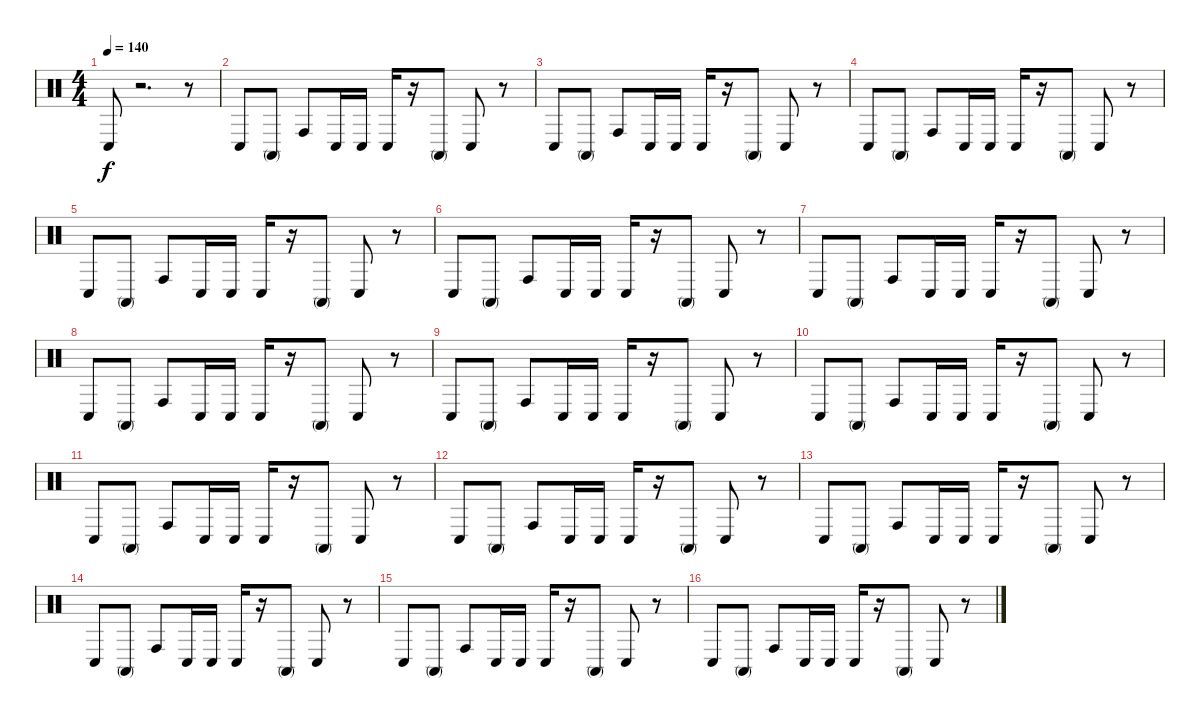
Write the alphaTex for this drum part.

\track "" {instrument percussion}
\staff {score}
\articulation defaults
\ts (4 4)
\tempo 140
\clef neutral
\ks c "Conga low (hit)".8{dy f}
r.2{d} r.8 |
"Conga low (hit)".8 "Conga high (mute)".8 "Conga high (hit)".8 "Conga low (hit)".16 "Conga low (hit)".16 "Conga low (hit)".16 r.16 "Conga high (mute)".8 "Conga low (hit)".8 r.8 |
"Conga low (hit)".8 "Conga high (mute)".8 "Conga high (hit)".8 "Conga low (hit)".16 "Conga low (hit)".16 "Conga low (hit)".16 r.16 "Conga high (mute)".8 "Conga low (hit)".8 r.8 |
"Conga low (hit)".8 "Conga high (mute)".8 "Conga high (hit)".8 "Conga low (hit)".16 "Conga low (hit)".16 "Conga low (hit)".16 r.16 "Conga high (mute)".8 "Conga low (hit)".8 r.8 |
"Conga low (hit)".8 "Conga high (mute)".8 "Conga high (hit)".8 "Conga low (hit)".16 "Conga low (hit)".16 "Conga low (hit)".16 r.16 "Conga high (mute)".8 "Conga low (hit)".8 r.8 |
"Conga low (hit)".8 "Conga high (mute)".8 "Conga high (hit)".8 "Conga low (hit)".16 "Conga low (hit)".16 "Conga low (hit)".16 r.16 "Conga high (mute)".8 "Conga low (hit)".8 r.8 |
"Conga low (hit)".8 "Conga high (mute)".8 "Conga high (hit)".8 "Conga low (hit)".16 "Conga low (hit)".16 "Conga low (hit)".16 r.16 "Conga high (mute)".8 "Conga low (hit)".8 r.8 |
"Conga low (hit)".8 "Conga high (mute)".8 "Conga high (hit)".8 "Conga low (hit)".16 "Conga low (hit)".16 "Conga low (hit)".16 r.16 "Conga high (mute)".8 "Conga low (hit)".8 r.8 |
"Conga low (hit)".8 "Conga high (mute)".8 "Conga high (hit)".8 "Conga low (hit)".16 "Conga low (hit)".16 "Conga low (hit)".16 r.16 "Conga high (mute)".8 "Conga low (hit)".8 r.8 |
"Conga low (hit)".8 "Conga high (mute)".8 "Conga high (hit)".8 "Conga low (hit)".16 "Conga low (hit)".16 "Conga low (hit)".16 r.16 "Conga high (mute)".8 "Conga low (hit)".8 r.8 |
"Conga low (hit)".8 "Conga high (mute)".8 "Conga high (hit)".8 "Conga low (hit)".16 "Conga low (hit)".16 "Conga low (hit)".16 r.16 "Conga high (mute)".8 "Conga low (hit)".8 r.8 |
"Conga low (hit)".8 "Conga high (mute)".8 "Conga high (hit)".8 "Conga low (hit)".16 "Conga low (hit)".16 "Conga low (hit)".16 r.16 "Conga high (mute)".8 "Conga low (hit)".8 r.8 |
"Conga low (hit)".8 "Conga high (mute)".8 "Conga high (hit)".8 "Conga low (hit)".16 "Conga low (hit)".16 "Conga low (hit)".16 r.16 "Conga high (mute)".8 "Conga low (hit)".8 r.8 |
"Conga low (hit)".8 "Conga high (mute)".8 "Conga high (hit)".8 "Conga low (hit)".16 "Conga low (hit)".16 "Conga low (hit)".16 r.16 "Conga high (mute)".8 "Conga low (hit)".8 r.8 |
"Conga low (hit)".8 "Conga high (mute)".8 "Conga high (hit)".8 "Conga low (hit)".16 "Conga low (hit)".16 "Conga low (hit)".16 r.16 "Conga high (mute)".8 "Conga low (hit)".8 r.8 |
"Conga low (hit)".8 "Conga high (mute)".8 "Conga high (hit)".8 "Conga low (hit)".16 "Conga low (hit)".16 "Conga low (hit)".16 r.16 "Conga high (mute)".8 "Conga low (hit)".8 r.8
